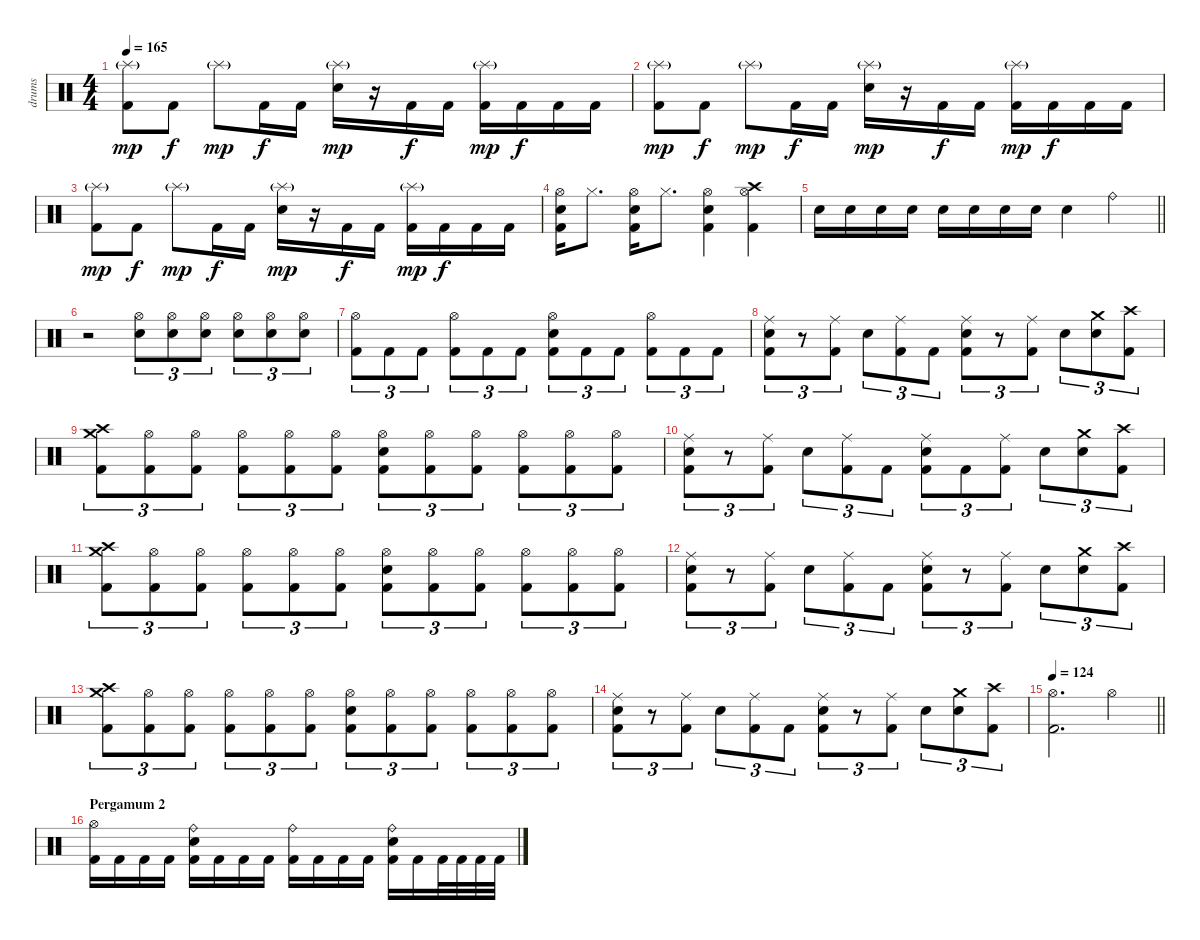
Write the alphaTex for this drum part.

\track ("drums" "drums") {instrument percussion}
\staff {score}
\articulation defaults
\ts (4 4)
\section ("" "")
\tempo 165
\clef neutral
\ks c
("Splash (hit)"{g} "Kick (hit) 2").8{dy mp} "Kick (hit) 2".8{dy f} "Splash (hit)"{g}.8{dy mp} "Kick (hit) 2".16{dy f} "Kick (hit) 2".16 ("Splash (hit)"{g} "Electric Snare (hit)").16{dy mp} r.16 "Kick (hit) 2".16{dy f} "Kick (hit) 2".16 ("Splash (hit)"{g} "Kick (hit) 2").16{dy mp} "Kick (hit) 2".16{dy f} "Kick (hit) 2".16 "Kick (hit) 2".16 |
("Splash (hit)"{g} "Kick (hit) 2").8{dy mp} "Kick (hit) 2".8{dy f} "Splash (hit)"{g}.8{dy mp} "Kick (hit) 2".16{dy f} "Kick (hit) 2".16 ("Splash (hit)"{g} "Electric Snare (hit)").16{dy mp} r.16 "Kick (hit) 2".16{dy f} "Kick (hit) 2".16 ("Splash (hit)"{g} "Kick (hit) 2").16{dy mp} "Kick (hit) 2".16{dy f} "Kick (hit) 2".16 "Kick (hit) 2".16 |
("Splash (hit)"{g} "Kick (hit) 2").8{dy mp} "Kick (hit) 2".8{dy f} "Splash (hit)"{g}.8{dy mp} "Kick (hit) 2".16{dy f} "Kick (hit) 2".16 ("Splash (hit)"{g} "Electric Snare (hit)").16{dy mp} r.16 "Kick (hit) 2".16{dy f} "Kick (hit) 2".16 ("Splash (hit)"{g} "Kick (hit) 2").16{dy mp} "Kick (hit) 2".16{dy f} "Kick (hit) 2".16 "Kick (hit) 2".16 |
("Hi-Hat (open)" "Electric Snare (hit)" "Kick (hit) 2").16 "Hi-Hat (closed)".8{d} ("Hi-Hat (open)" "Electric Snare (hit)" "Kick (hit) 2").16 "Hi-Hat (closed)".8{d} ("Hi-Hat (open)" "Electric Snare (hit)" "Kick (hit) 2").4 ("Crash high (hit)" "Hi-Hat (open)" "Kick (hit) 2").4 |
\barLineRight lightlight "Electric Snare (hit)".16 "Electric Snare (hit)".16 "Electric Snare (hit)".16 "Electric Snare (hit)".16 "Electric Snare (hit)".16 "Electric Snare (hit)".16 "Electric Snare (hit)".16 "Electric Snare (hit)".16 "Electric Snare (hit)".4 "Ride (bell)".4
|
\section ("" "")
r.2 ("Hi-Hat (open)" "Electric Snare (hit)").8{tu (3 2)} ("Hi-Hat (open)" "Electric Snare (hit)").8{tu (3 2)} ("Hi-Hat (open)" "Electric Snare (hit)").8{tu (3 2)} ("Hi-Hat (open)" "Electric Snare (hit)").8{tu (3 2)} ("Hi-Hat (open)" "Electric Snare (hit)").8{tu (3 2)} ("Hi-Hat (open)" "Electric Snare (hit)").8{tu (3 2)} |
("Hi-Hat (open)" "Kick (hit) 2").8{tu (3 2)} "Kick (hit) 2".8{tu (3 2)} "Kick (hit) 2".8{tu (3 2)} ("Hi-Hat (open)" "Kick (hit) 2").8{tu (3 2)} "Kick (hit) 2".8{tu (3 2)} "Kick (hit) 2".8{tu (3 2)} ("Hi-Hat (open)" "Electric Snare (hit)" "Kick (hit) 2").8{tu (3 2)} "Kick (hit) 2".8{tu (3 2)} "Kick (hit) 2".8{tu (3 2)} ("Hi-Hat (open)" "Kick (hit) 2").8{tu (3 2)} "Kick (hit) 2".8{tu (3 2)} "Kick (hit) 2".8{tu (3 2)} |
("Ride (middle)" "Electric Snare (hit)" "Kick (hit) 2").8{tu (3 2)} r.8{tu (3 2)} ("Ride (middle)" "Kick (hit) 2").8{tu (3 2)} "Electric Snare (hit)".8{tu (3 2)} ("Ride (middle)" "Kick (hit) 2").8{tu (3 2)} "Kick (hit) 2".8{tu (3 2)} ("Ride (middle)" "Electric Snare (hit)" "Kick (hit) 2").8{tu (3 2)} r.8{tu (3 2)} ("Ride (middle)" "Kick (hit) 2").8{tu (3 2)} "Electric Snare (hit)".8{tu (3 2)} ("Crash medium (hit)" "Electric Snare (hit)").8{tu (3 2)} ("Crash high (hit)" "Kick (hit) 2").8{tu (3 2)} |
("Crash high (hit)" "Crash medium (hit)" "Kick (hit) 2").8{tu (3 2)} ("Hi-Hat (open)" "Kick (hit) 2").8{tu (3 2)} ("Hi-Hat (open)" "Kick (hit) 2").8{tu (3 2)} ("Hi-Hat (open)" "Kick (hit) 2").8{tu (3 2)} ("Hi-Hat (open)" "Kick (hit) 2").8{tu (3 2)} ("Hi-Hat (open)" "Kick (hit) 2").8{tu (3 2)} ("Hi-Hat (open)" "Electric Snare (hit)" "Kick (hit) 2").8{tu (3 2)} ("Hi-Hat (open)" "Kick (hit) 2").8{tu (3 2)} ("Hi-Hat (open)" "Kick (hit) 2").8{tu (3 2)} ("Hi-Hat (open)" "Kick (hit) 2").8{tu (3 2)} ("Hi-Hat (open)" "Kick (hit) 2").8{tu (3 2)} ("Hi-Hat (open)" "Kick (hit) 2").8{tu (3 2)} |
("Ride (middle)" "Electric Snare (hit)" "Kick (hit) 2").8{tu (3 2)} r.8{tu (3 2)} ("Ride (middle)" "Kick (hit) 2").8{tu (3 2)} "Electric Snare (hit)".8{tu (3 2)} ("Ride (middle)" "Kick (hit) 2").8{tu (3 2)} "Kick (hit) 2".8{tu (3 2)} ("Ride (middle)" "Electric Snare (hit)" "Kick (hit) 2").8{tu (3 2)} "Kick (hit) 2".8{tu (3 2)} ("Ride (middle)" "Kick (hit) 2").8{tu (3 2)} "Electric Snare (hit)".8{tu (3 2)} ("Crash medium (hit)" "Electric Snare (hit)").8{tu (3 2)} ("Crash high (hit)" "Kick (hit) 2").8{tu (3 2)} |
("Crash high (hit)" "Crash medium (hit)" "Kick (hit) 2").8{tu (3 2)} ("Hi-Hat (open)" "Kick (hit) 2").8{tu (3 2)} ("Hi-Hat (open)" "Kick (hit) 2").8{tu (3 2)} ("Hi-Hat (open)" "Kick (hit) 2").8{tu (3 2)} ("Hi-Hat (open)" "Kick (hit) 2").8{tu (3 2)} ("Hi-Hat (open)" "Kick (hit) 2").8{tu (3 2)} ("Hi-Hat (open)" "Electric Snare (hit)" "Kick (hit) 2").8{tu (3 2)} ("Hi-Hat (open)" "Kick (hit) 2").8{tu (3 2)} ("Hi-Hat (open)" "Kick (hit) 2").8{tu (3 2)} ("Hi-Hat (open)" "Kick (hit) 2").8{tu (3 2)} ("Hi-Hat (open)" "Kick (hit) 2").8{tu (3 2)} ("Hi-Hat (open)" "Kick (hit) 2").8{tu (3 2)} |
("Ride (middle)" "Electric Snare (hit)" "Kick (hit) 2").8{tu (3 2)} r.8{tu (3 2)} ("Ride (middle)" "Kick (hit) 2").8{tu (3 2)} "Electric Snare (hit)".8{tu (3 2)} ("Ride (middle)" "Kick (hit) 2").8{tu (3 2)} "Kick (hit) 2".8{tu (3 2)} ("Ride (middle)" "Electric Snare (hit)" "Kick (hit) 2").8{tu (3 2)} r.8{tu (3 2)} ("Ride (middle)" "Kick (hit) 2").8{tu (3 2)} "Electric Snare (hit)".8{tu (3 2)} ("Crash medium (hit)" "Electric Snare (hit)").8{tu (3 2)} ("Crash high (hit)" "Kick (hit) 2").8{tu (3 2)} |
("Crash high (hit)" "Crash medium (hit)" "Kick (hit) 2").8{tu (3 2)} ("Hi-Hat (open)" "Kick (hit) 2").8{tu (3 2)} ("Hi-Hat (open)" "Kick (hit) 2").8{tu (3 2)} ("Hi-Hat (open)" "Kick (hit) 2").8{tu (3 2)} ("Hi-Hat (open)" "Kick (hit) 2").8{tu (3 2)} ("Hi-Hat (open)" "Kick (hit) 2").8{tu (3 2)} ("Hi-Hat (open)" "Electric Snare (hit)" "Kick (hit) 2").8{tu (3 2)} ("Hi-Hat (open)" "Kick (hit) 2").8{tu (3 2)} ("Hi-Hat (open)" "Kick (hit) 2").8{tu (3 2)} ("Hi-Hat (open)" "Kick (hit) 2").8{tu (3 2)} ("Hi-Hat (open)" "Kick (hit) 2").8{tu (3 2)} ("Hi-Hat (open)" "Kick (hit) 2").8{tu (3 2)} |
("Ride (middle)" "Electric Snare (hit)" "Kick (hit) 2").8{tu (3 2)} r.8{tu (3 2)} ("Ride (middle)" "Kick (hit) 2").8{tu (3 2)} "Electric Snare (hit)".8{tu (3 2)} ("Ride (middle)" "Kick (hit) 2").8{tu (3 2)} "Kick (hit) 2".8{tu (3 2)} ("Ride (middle)" "Electric Snare (hit)" "Kick (hit) 2").8{tu (3 2)} r.8{tu (3 2)} ("Ride (middle)" "Kick (hit) 2").8{tu (3 2)} "Electric Snare (hit)".8{tu (3 2)} ("Crash medium (hit)" "Electric Snare (hit)").8{tu (3 2)} ("Crash high (hit)" "Kick (hit) 2").8{tu (3 2)} |
\tempo 124
\barLineRight lightlight
("Hi-Hat (open)" "Kick (hit) 2").2{d} "Hi-Hat (open)".4 |
\section ("" "Pergamum 2")
("Hi-Hat (open)" "Kick (hit) 2").16 "Kick (hit) 2".16 "Kick (hit) 2".16 "Kick (hit) 2".16 ("Ride (bell)" "Electric Snare (hit)" "Kick (hit) 2").16 "Kick (hit) 2".16 "Kick (hit) 2".16 "Kick (hit) 2".16 ("Ride (bell)" "Kick (hit) 2").16 "Kick (hit) 2".16 "Kick (hit) 2".16 "Kick (hit) 2".16 ("Ride (bell)" "Electric Snare (hit)" "Kick (hit) 2").16 "Kick (hit) 2".16 "Kick (hit) 2".32 "Kick (hit) 2".32 "Kick (hit) 2".32 "Kick (hit) 2".32
